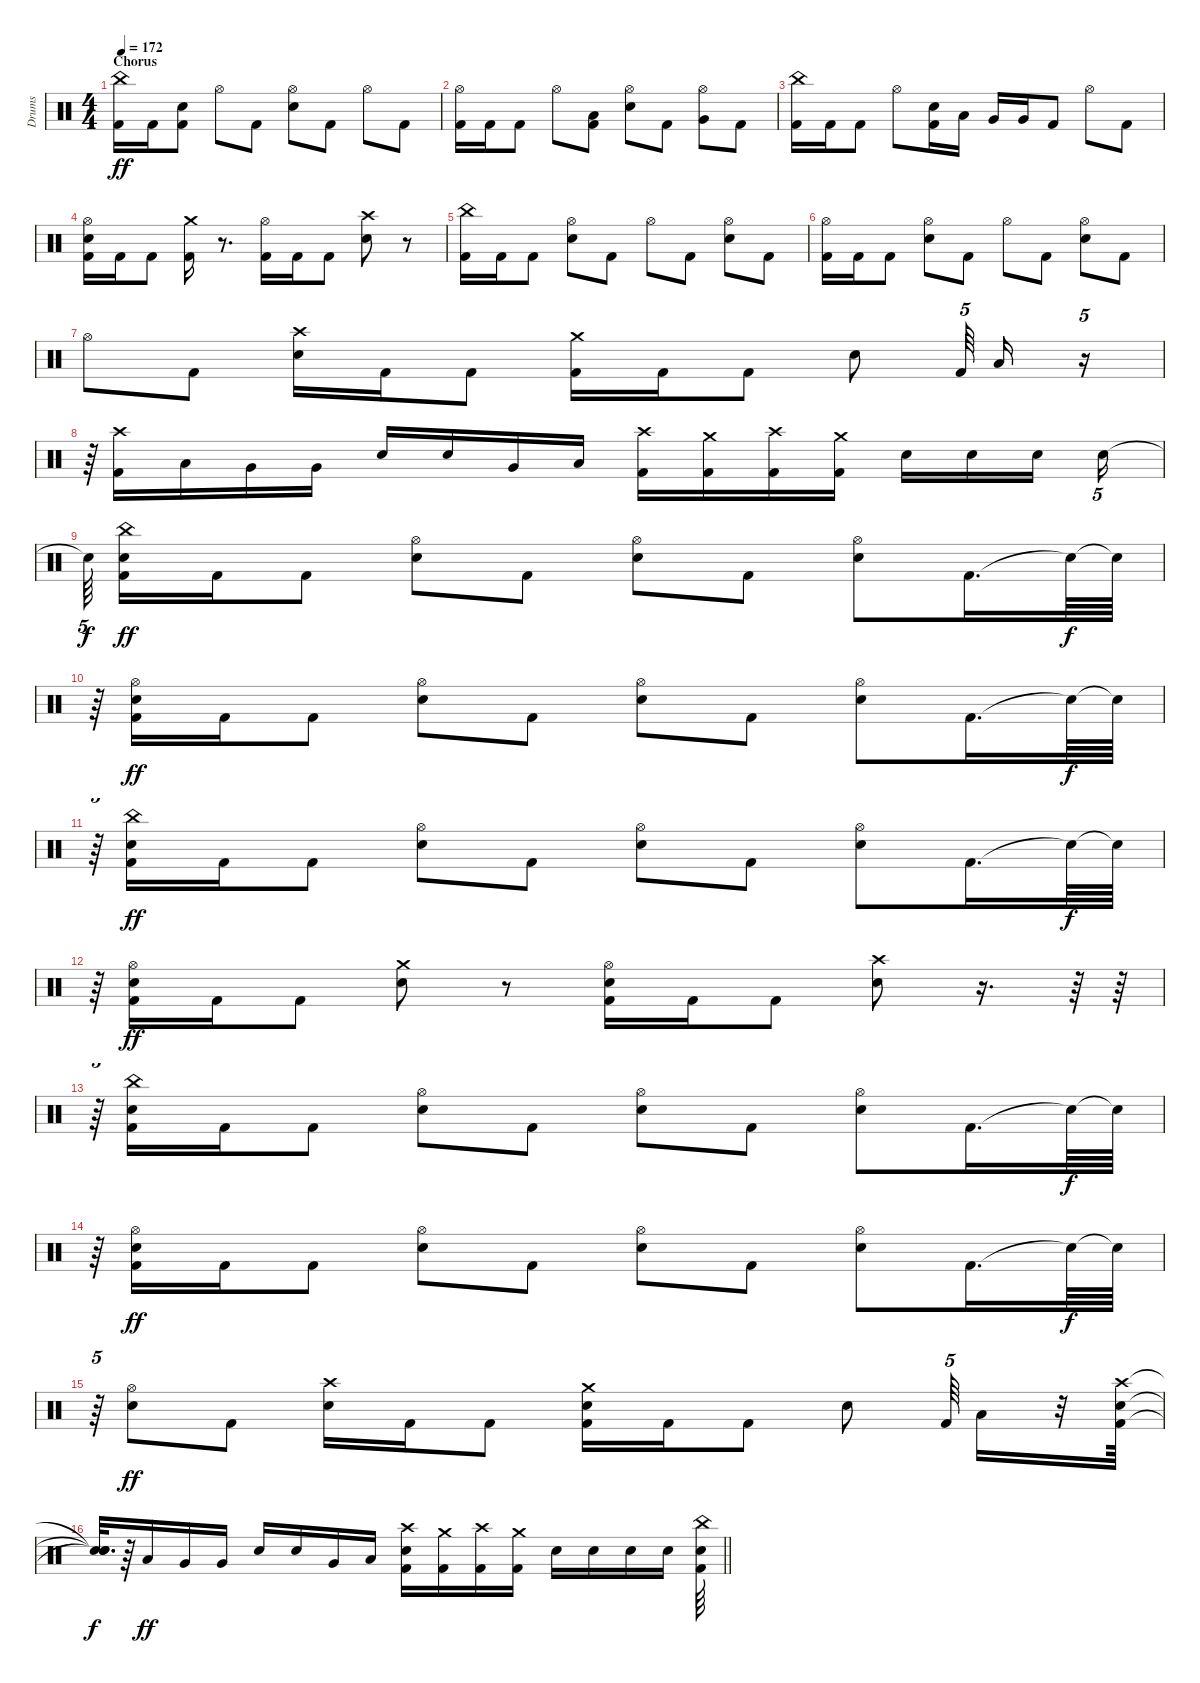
\track ("Drums" "Drums") {instrument percussion}
\staff {score}
\articulation defaults
\ts (4 4)
\section ("" "Chorus")
\tempo 172
\clef neutral
\ks c
("China (hit)" "Kick (hit) 2").16{dy ff} "Kick (hit) 2".16 ("Kick (hit) 2" "Snare (hit) 2").8 "Hi-Hat (open)".8 "Kick (hit) 2".8 ("Hi-Hat (open)" "Snare (hit) 2").8 "Kick (hit) 2".8 "Hi-Hat (open)".8 "Kick (hit) 2".8 |
("Hi-Hat (open)" "Kick (hit) 2").16 "Kick (hit) 2".16 "Kick (hit) 2".8 "Hi-Hat (open)".8 ("Kick (hit) 2" "Low Tom (hit)").8 ("Hi-Hat (open)" "Snare (hit) 2").8 "Kick (hit) 2".8 ("Hi-Hat (open)" "Very Low Tom (hit)").8 "Kick (hit) 2".8 |
("China (hit)" "Kick (hit) 2").16 "Kick (hit) 2".16 "Kick (hit) 2".8 "Hi-Hat (open)".8 ("Kick (hit) 2" "Snare (hit) 2").16 "Low Tom (hit)".16 "Very Low Tom (hit)".16 "Very Low Tom (hit)".16 "Kick (hit) 2".8 "Hi-Hat (open)".8 "Kick (hit) 2".8 |
("Hi-Hat (open)" "Kick (hit) 2" "Snare (hit) 2").16 "Kick (hit) 2".16 "Kick (hit) 2".8 ("Crash medium (hit)" "Kick (hit) 2").16 r.8{d} ("Hi-Hat (open)" "Kick (hit) 2").16 "Kick (hit) 2".16 "Kick (hit) 2".8 ("Crash high (hit)" "Snare (hit) 2").8 r.8 |
("China (hit)" "Kick (hit) 2").16 "Kick (hit) 2".16 "Kick (hit) 2".8 ("Hi-Hat (open)" "Snare (hit) 2").8 "Kick (hit) 2".8 "Hi-Hat (open)".8 "Kick (hit) 2".8 ("Hi-Hat (open)" "Snare (hit) 2").8 "Kick (hit) 2".8 |
("Hi-Hat (open)" "Kick (hit) 2").16 "Kick (hit) 2".16 "Kick (hit) 2".8 ("Hi-Hat (open)" "Snare (hit) 2").8 "Kick (hit) 2".8 "Hi-Hat (open)".8 "Kick (hit) 2".8 ("Hi-Hat (open)" "Snare (hit) 2").8 "Kick (hit) 2".8 |
"Hi-Hat (open)".8 "Kick (hit) 2".8 ("Crash high (hit)" "Snare (hit) 2").16 "Kick (hit) 2".16 "Kick (hit) 2".8 ("Crash medium (hit)" "Kick (hit) 2").16 "Kick (hit) 2".16 "Kick (hit) 2".8 "Snare (hit) 2".8 "Kick (hit) 2".64{tu (5 4) beam splitsecondary} "Low Tom (hit)".16 r.16{tu (5 4)} |
r.64{tu (5 4)} ("Crash high (hit)" "Kick (hit) 2").16 "Low Tom (hit)".16 "Very Low Tom (hit)".16 "Very Low Tom (hit)".16 "Snare (hit) 2".16 "Snare (hit) 2".16 "Very Low Tom (hit)".16 "Low Floor Tom (hit)".16 ("Crash high (hit)" "Kick (hit) 2").16 ("Crash medium (hit)" "Kick (hit) 2").16 ("Crash high (hit)" "Kick (hit) 2").16 ("Crash medium (hit)" "Kick (hit) 2").16 "Snare (hit) 2".16 "Snare (hit) 2".16 "Snare (hit) 2".16{beam splitsecondary} "Snare (hit) 2".16{tu (5 4)} |
"Snare (hit)"{t}.64{tu (5 4) dy f beam splitsecondary} ("China (hit)" "Kick (hit) 2" "Snare (hit) 2").16{dy ff} "Kick (hit) 2".16 "Kick (hit) 2".8 ("Hi-Hat (open)" "Snare (hit) 2").8 "Kick (hit) 2".8 ("Hi-Hat (open)" "Snare (hit) 2").8 "Kick (hit) 2".8 ("Hi-Hat (open)" "Snare (hit) 2").8 "Kick (hit) 2".16{d} "Snare (hit)"{t}.64{dy f} "Snare (hit)"{t}.64 |
r.64{tu (5 4)} ("Hi-Hat (open)" "Kick (hit) 2" "Snare (hit) 2").16{dy ff} "Kick (hit) 2".16 "Kick (hit) 2".8 ("Hi-Hat (open)" "Snare (hit) 2").8 "Kick (hit) 2".8 ("Hi-Hat (open)" "Snare (hit) 2").8 "Kick (hit) 2".8 ("Hi-Hat (open)" "Snare (hit) 2").8 "Kick (hit) 2".16{d} "Snare (hit)"{t}.64{dy f} "Snare (hit)"{t}.64 |
r.64{tu (5 4)} ("China (hit)" "Kick (hit) 2" "Snare (hit) 2").16{dy ff} "Kick (hit) 2".16 "Kick (hit) 2".8 ("Hi-Hat (open)" "Snare (hit) 2").8 "Kick (hit) 2".8 ("Hi-Hat (open)" "Snare (hit) 2").8 "Kick (hit) 2".8 ("Hi-Hat (open)" "Snare (hit) 2").8 "Kick (hit) 2".16{d} "Snare (hit)"{t}.64{dy f} "Snare (hit)"{t}.64 |
r.64{tu (5 4)} ("Hi-Hat (open)" "Kick (hit) 2" "Snare (hit) 2").16{dy ff} "Kick (hit) 2".16 "Kick (hit) 2".8 ("Crash medium (hit)" "Snare (hit) 2").8 r.8 ("Hi-Hat (open)" "Kick (hit) 2" "Snare (hit) 2").16 "Kick (hit) 2".16 "Kick (hit) 2".8 ("Crash high (hit)" "Snare (hit) 2").8 r.16{d} r.64 r.64 |
r.64{tu (5 4)} ("China (hit)" "Kick (hit) 2" "Snare (hit) 2").16 "Kick (hit) 2".16 "Kick (hit) 2".8 ("Hi-Hat (open)" "Snare (hit) 2").8 "Kick (hit) 2".8 ("Hi-Hat (open)" "Snare (hit) 2").8 "Kick (hit) 2".8 ("Hi-Hat (open)" "Snare (hit) 2").8 "Kick (hit) 2".16{d} "Snare (hit)"{t}.64{dy f} "Snare (hit)"{t}.64 |
r.64{tu (5 4)} ("Hi-Hat (open)" "Kick (hit) 2" "Snare (hit) 2").16{dy ff} "Kick (hit) 2".16 "Kick (hit) 2".8 ("Hi-Hat (open)" "Snare (hit) 2").8 "Kick (hit) 2".8 ("Hi-Hat (open)" "Snare (hit) 2").8 "Kick (hit) 2".8 ("Hi-Hat (open)" "Snare (hit) 2").8 "Kick (hit) 2".16{d} "Snare (hit)"{t}.64{dy f} "Snare (hit)"{t}.64 |
r.64{tu (5 4)} ("Hi-Hat (open)" "Snare (hit) 2").8{dy ff} "Kick (hit) 2".8 ("Crash high (hit)" "Snare (hit) 2").16 "Kick (hit) 2".16 "Kick (hit) 2".8 ("Crash medium (hit)" "Kick (hit) 2" "Snare (hit) 2").16 "Kick (hit) 2".16 "Kick (hit) 2".8 "Snare (hit) 2".8 "Kick (hit) 2".64{tu (5 4) beam splitsecondary} "Low Tom (hit)".16 r.32 ("Crash high (hit)" "Kick (hit) 2" "Snare (hit) 2").64 |
\barLineRight lightlight
("Snare (hit)"{t} "Snare (hit)"{t} "Snare (hit)"{t}).32{d dy f} r.64 "Low Tom (hit)".16{dy ff} "Very Low Tom (hit)".16 "Very Low Tom (hit)".16 "Snare (hit) 2".16 "Snare (hit) 2".16 "Very Low Tom (hit)".16 "Low Floor Tom (hit)".16 ("Crash high (hit)" "Kick (hit) 2" "Snare (hit) 2").16 ("Crash medium (hit)" "Kick (hit) 2").16 ("Crash high (hit)" "Kick (hit) 2").16 ("Crash medium (hit)" "Kick (hit) 2").16 "Snare (hit) 2".16 "Snare (hit) 2".16 "Snare (hit) 2".16 "Snare (hit) 2".16 ("China (hit)" "Kick (hit) 2" "Snare (hit) 2").64
